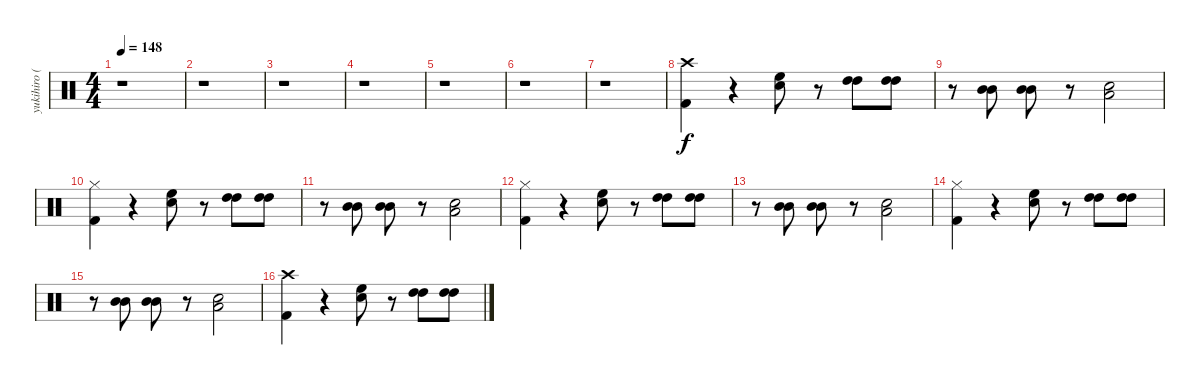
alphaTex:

\track ("yukihiro (Drums)" "yukihiro (") {instrument percussion}
\staff {score}
\articulation defaults
\ts (4 4)
\tempo 148
\clef neutral
\ks c
r.1{dy f} |
r.1 |
r.1 |
r.1 |
r.1 |
r.1 |
r.1 |
("Crash high (hit)" "Kick (hit) 2").4 r.4 ("High Floor Tom (hit)" "Electric Snare (hit)").8 r.8 ("High Tom (hit)" "High Tom (hit)").8 ("High Tom (hit)" "High Tom (hit)").8 |
r.8 ("Mid Tom (hit)" "Mid Tom (hit)").8 ("Mid Tom (hit)" "Mid Tom (hit)").8 r.8 ("Electric Snare (hit)" "Low Tom (hit)").2 |
("Hi-Hat (closed)" "Kick (hit) 2").4 r.4 ("High Floor Tom (hit)" "Electric Snare (hit)").8 r.8 ("High Tom (hit)" "High Tom (hit)").8 ("High Tom (hit)" "High Tom (hit)").8 |
r.8 ("Mid Tom (hit)" "Mid Tom (hit)").8 ("Mid Tom (hit)" "Mid Tom (hit)").8 r.8 ("Electric Snare (hit)" "Low Tom (hit)").2 |
("Hi-Hat (closed)" "Kick (hit) 2").4 r.4 ("High Floor Tom (hit)" "Electric Snare (hit)").8 r.8 ("High Tom (hit)" "High Tom (hit)").8 ("High Tom (hit)" "High Tom (hit)").8 |
r.8 ("Mid Tom (hit)" "Mid Tom (hit)").8 ("Mid Tom (hit)" "Mid Tom (hit)").8 r.8 ("Electric Snare (hit)" "Low Tom (hit)").2 |
("Hi-Hat (closed)" "Kick (hit) 2").4 r.4 ("High Floor Tom (hit)" "Electric Snare (hit)").8 r.8 ("High Tom (hit)" "High Tom (hit)").8 ("High Tom (hit)" "High Tom (hit)").8 |
r.8 ("Mid Tom (hit)" "Mid Tom (hit)").8 ("Mid Tom (hit)" "Mid Tom (hit)").8 r.8 ("Electric Snare (hit)" "Low Tom (hit)").2 |
("Crash high (hit)" "Kick (hit) 2").4 r.4 ("High Floor Tom (hit)" "Electric Snare (hit)").8 r.8 ("High Tom (hit)" "High Tom (hit)").8 ("High Tom (hit)" "High Tom (hit)").8
